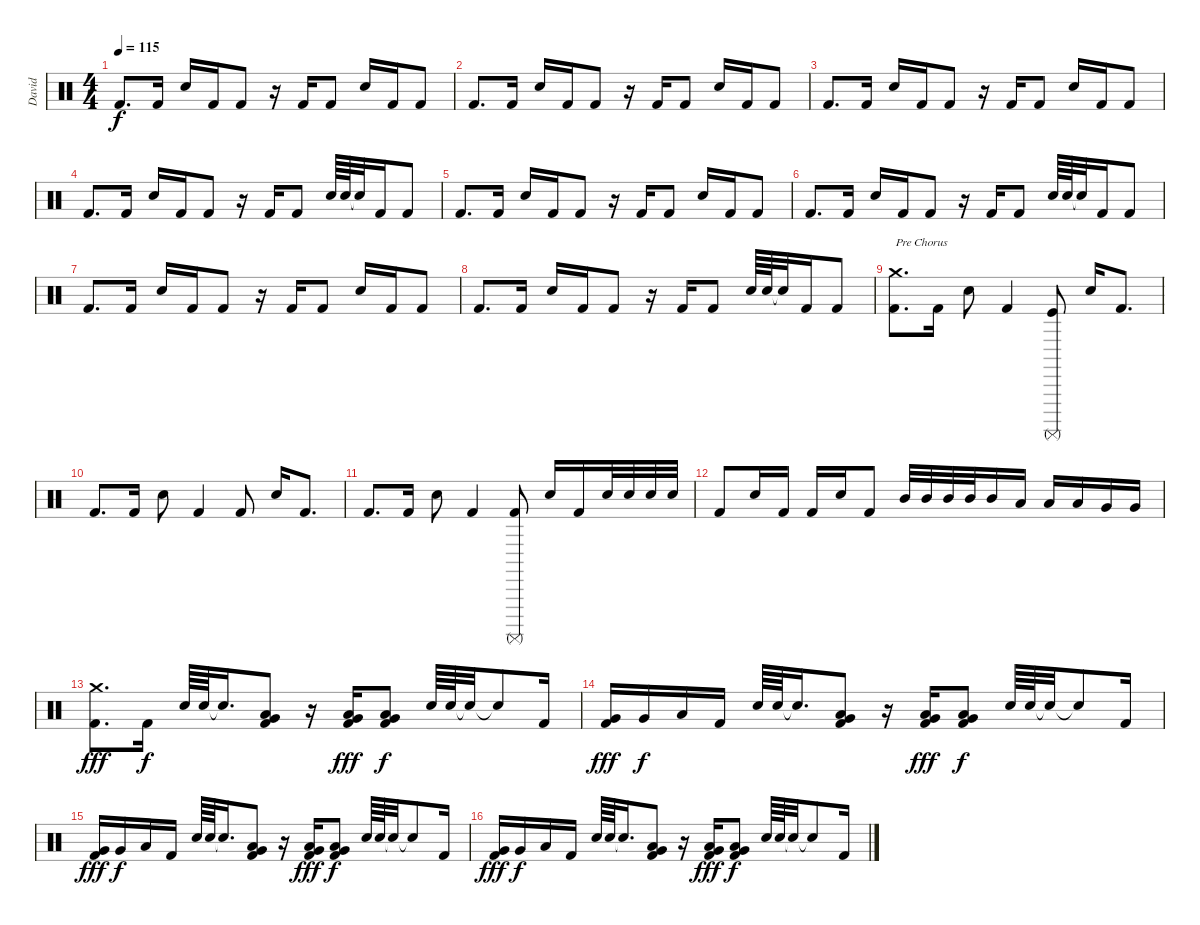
\track ("David" "David") {instrument percussion}
\staff {score}
\articulation defaults
\ts (4 4)
\tempo 115
\clef neutral
\ks c "Kick (hit) 2".8{d dy f} "Kick (hit) 2".16 "Snare (hit) 2".16 "Kick (hit) 2".16 "Kick (hit) 2".8
r.16 "Kick (hit) 2".16 "Kick (hit) 2".8 "Snare (hit) 2".16 "Kick (hit) 2".16 "Kick (hit) 2".8 |
"Kick (hit) 2".8{d} "Kick (hit) 2".16 "Snare (hit) 2".16 "Kick (hit) 2".16 "Kick (hit) 2".8 r.16 "Kick (hit) 2".16 "Kick (hit) 2".8 "Snare (hit) 2".16 "Kick (hit) 2".16 "Kick (hit) 2".8 |
"Kick (hit) 2".8{d} "Kick (hit) 2".16 "Snare (hit) 2".16 "Kick (hit) 2".16 "Kick (hit) 2".8 r.16 "Kick (hit) 2".16 "Kick (hit) 2".8 "Snare (hit) 2".16 "Kick (hit) 2".16 "Kick (hit) 2".8 |
"Kick (hit) 2".8{d} "Kick (hit) 2".16 "Snare (hit) 2".16 "Kick (hit) 2".16 "Kick (hit) 2".8 r.16 "Kick (hit) 2".16 "Kick (hit) 2".8 "Snare (hit) 2".64 "Snare (hit) 2".64 "Snare (hit)"{t}.32 "Kick (hit) 2".16 "Kick (hit) 2".8 |
"Kick (hit) 2".8{d} "Kick (hit) 2".16 "Snare (hit) 2".16 "Kick (hit) 2".16 "Kick (hit) 2".8 r.16 "Kick (hit) 2".16 "Kick (hit) 2".8 "Snare (hit) 2".16 "Kick (hit) 2".16 "Kick (hit) 2".8 |
"Kick (hit) 2".8{d} "Kick (hit) 2".16 "Snare (hit) 2".16 "Kick (hit) 2".16 "Kick (hit) 2".8 r.16 "Kick (hit) 2".16 "Kick (hit) 2".8 "Snare (hit) 2".64 "Snare (hit) 2".64 "Snare (hit)"{t}.32 "Kick (hit) 2".16 "Kick (hit) 2".8 |
"Kick (hit) 2".8{d} "Kick (hit) 2".16 "Snare (hit) 2".16 "Kick (hit) 2".16 "Kick (hit) 2".8 r.16 "Kick (hit) 2".16 "Kick (hit) 2".8 "Snare (hit) 2".16 "Kick (hit) 2".16 "Kick (hit) 2".8 |
"Kick (hit) 2".8{d} "Kick (hit) 2".16 "Snare (hit) 2".16 "Kick (hit) 2".16 "Kick (hit) 2".8 r.16 "Kick (hit) 2".16 "Kick (hit) 2".8 "Snare (hit) 2".64 "Snare (hit) 2".64 "Snare (hit)"{t}.32 "Kick (hit) 2".16 "Kick (hit) 2".8 |
("Crash medium (hit)" "Kick (hit) 2").8{d txt "Pre Chorus"} "Kick (hit) 2".16 "Snare (hit) 2".8 "Kick (hit) 2".4 ("Kick (hit)" "Surdo (mute)").8 "Snare (hit) 2".16 "Kick (hit) 2".8{d} |
"Kick (hit) 2".8{d} "Kick (hit) 2".16 "Snare (hit) 2".8 "Kick (hit) 2".4 "Kick (hit) 2".8 "Snare (hit) 2".16 "Kick (hit) 2".8{d} |
"Kick (hit) 2".8{d} "Kick (hit) 2".16 "Snare (hit) 2".8 "Kick (hit) 2".4 ("Surdo (mute)" "Kick (hit) 2").8 "Snare (hit) 2".16 "Kick (hit) 2".16 "Snare (hit) 2".32 "Snare (hit) 2".32 "Snare (hit) 2".32 "Snare (hit) 2".32 |
"Kick (hit) 2".8 "Snare (hit) 2".16 "Kick (hit) 2".16 "Kick (hit) 2".16 "Snare (hit) 2".16 "Kick (hit) 2".8 "Mid Tom (hit)".32 "Mid Tom (hit)".32 "Mid Tom (hit)".32 "Mid Tom (hit)".32 "Mid Tom (hit)".16 "Low Tom (hit)".16 "Low Tom (hit)".16 "Low Tom (hit)".16 "Very Low Tom (hit)".16 "Very Low Tom (hit)".16 |
("Crash medium (hit)" "Kick (hit) 2").8{d dy fff} "Kick (hit) 2".16{dy f} "Snare (hit) 2".64 "Snare (hit) 2".64 "Snare (hit)"{t}.16{d} ("Low Tom (hit)" "Very Low Tom (hit)" "Kick (hit) 2").8 r.16 ("Very Low Tom (hit)" "Low Floor Tom (hit)" "Kick (hit) 2").16{dy fff} ("Very Low Tom (hit)" "Low Floor Tom (hit)" "Kick (hit) 2").8{dy f} "Snare (hit) 2".64 "Snare (hit) 2".64 "Snare (hit)"{t}.32 "Snare (hit)"{t}.8 "Kick (hit) 2".16 |
("Very Low Tom (hit)" "Kick (hit) 2").16{dy fff} "Very Low Tom (hit)".16{dy f} "Low Floor Tom (hit)".16 "Kick (hit) 2".16 "Snare (hit) 2".64 "Snare (hit) 2".64 "Snare (hit)"{t}.16{d} ("Low Tom (hit)" "Very Low Tom (hit)" "Kick (hit) 2").8 r.16 ("Very Low Tom (hit)" "Low Floor Tom (hit)" "Kick (hit) 2").16{dy fff} ("Very Low Tom (hit)" "Low Floor Tom (hit)" "Kick (hit) 2").8{dy f} "Snare (hit) 2".64 "Snare (hit) 2".64 "Snare (hit)"{t}.32 "Snare (hit)"{t}.8 "Kick (hit) 2".16 |
("Very Low Tom (hit)" "Kick (hit) 2").16{dy fff} "Very Low Tom (hit)".16{dy f} "Low Floor Tom (hit)".16 "Kick (hit) 2".16 "Snare (hit) 2".64 "Snare (hit) 2".64 "Snare (hit)"{t}.16{d} ("Low Tom (hit)" "Very Low Tom (hit)" "Kick (hit) 2").8 r.16 ("Very Low Tom (hit)" "Low Floor Tom (hit)" "Kick (hit) 2").16{dy fff} ("Very Low Tom (hit)" "Low Floor Tom (hit)" "Kick (hit) 2").8{dy f} "Snare (hit) 2".64 "Snare (hit) 2".64 "Snare (hit)"{t}.32 "Snare (hit)"{t}.8 "Kick (hit) 2".16 |
("Very Low Tom (hit)" "Kick (hit) 2").16{dy fff} "Very Low Tom (hit)".16{dy f} "Low Floor Tom (hit)".16 "Kick (hit) 2".16 "Snare (hit) 2".64 "Snare (hit) 2".64 "Snare (hit)"{t}.16{d} ("Low Tom (hit)" "Very Low Tom (hit)" "Kick (hit) 2").8 r.16 ("Very Low Tom (hit)" "Low Floor Tom (hit)" "Kick (hit) 2").16{dy fff} ("Very Low Tom (hit)" "Low Floor Tom (hit)" "Kick (hit) 2").8{dy f} "Snare (hit) 2".64 "Snare (hit) 2".64 "Snare (hit)"{t}.32 "Snare (hit)"{t}.8 "Kick (hit) 2".16
